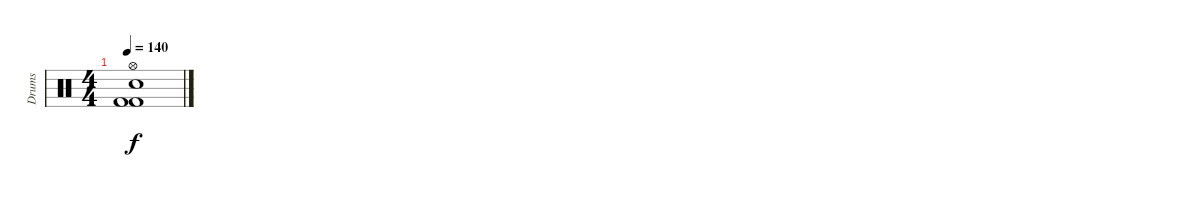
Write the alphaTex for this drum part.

\track ("Drums" "Drums") {instrument percussion}
\staff {score}
\articulation defaults
\ts (4 4)
\tempo 140
\clef neutral
\ks c
("Hi-Hat (open)" "Kick (hit) 2" "Electric Snare (hit)" "Kick (hit) 2").1{dy f}
